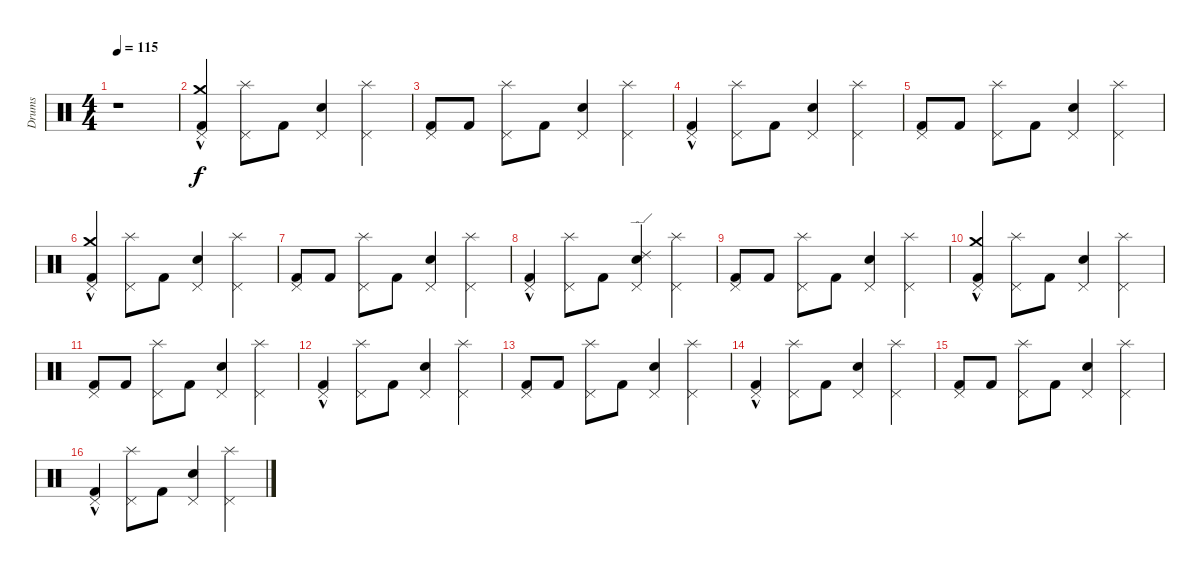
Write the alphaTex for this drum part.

\track ("Drums" "Drums") {instrument percussion}
\staff {score}
\articulation defaults
\ts (4 4)
\tempo 115
\clef neutral
\ks c
r.1{dy f} |
("Pedal Hi-Hat (hit)" "Crash medium (hit)" "Kick (hit) 2"{hac}).4 ("Splash (hit)" "Pedal Hi-Hat (hit)").8 "Kick (hit) 2".8 ("Pedal Hi-Hat (hit)" "Snare (hit) 2").4 ("Splash (hit)" "Pedal Hi-Hat (hit)").4 |
("Pedal Hi-Hat (hit)" "Kick (hit) 2").8 "Kick (hit) 2".8 ("Splash (hit)" "Pedal Hi-Hat (hit)").8 "Kick (hit) 2".8 ("Pedal Hi-Hat (hit)" "Snare (hit) 2").4 ("Splash (hit)" "Pedal Hi-Hat (hit)").4 |
("Pedal Hi-Hat (hit)" "Kick (hit) 2"{hac}).4 ("Splash (hit)" "Pedal Hi-Hat (hit)").8 "Kick (hit) 2".8 ("Pedal Hi-Hat (hit)" "Snare (hit) 2").4 ("Splash (hit)" "Pedal Hi-Hat (hit)").4 |
("Pedal Hi-Hat (hit)" "Kick (hit) 2").8 "Kick (hit) 2".8 ("Splash (hit)" "Pedal Hi-Hat (hit)").8 "Kick (hit) 2".8 ("Pedal Hi-Hat (hit)" "Snare (hit) 2").4 ("Splash (hit)" "Pedal Hi-Hat (hit)").4 |
("Crash medium (hit)" "Pedal Hi-Hat (hit)" "Kick (hit) 2"{hac}).4 ("Splash (hit)" "Pedal Hi-Hat (hit)").8 "Kick (hit) 2".8 ("Snare (hit) 2" "Pedal Hi-Hat (hit)").4 ("Splash (hit)" "Pedal Hi-Hat (hit)").4 |
("Kick (hit) 2" "Pedal Hi-Hat (hit)").8 "Kick (hit) 2".8 ("Splash (hit)" "Pedal Hi-Hat (hit)").8 "Kick (hit) 2".8 ("Snare (hit) 2" "Pedal Hi-Hat (hit)").4 ("Splash (hit)" "Pedal Hi-Hat (hit)").4 |
("Kick (hit) 2"{hac} "Pedal Hi-Hat (hit)").4 ("Splash (hit)" "Pedal Hi-Hat (hit)").8 "Kick (hit) 2".8 ("Ride (edge) 2" "Snare (hit) 2" "Pedal Hi-Hat (hit)").4 ("Pedal Hi-Hat (hit)" "Splash (hit)").4 |
("Kick (hit) 2" "Pedal Hi-Hat (hit)").8 "Kick (hit) 2".8 ("Splash (hit)" "Pedal Hi-Hat (hit)").8 "Kick (hit) 2".8 ("Snare (hit) 2" "Pedal Hi-Hat (hit)").4 ("Splash (hit)" "Pedal Hi-Hat (hit)").4 |
("Pedal Hi-Hat (hit)" "Crash medium (hit)" "Kick (hit) 2"{hac}).4 ("Splash (hit)" "Pedal Hi-Hat (hit)").8 "Kick (hit) 2".8 ("Pedal Hi-Hat (hit)" "Snare (hit) 2").4 ("Splash (hit)" "Pedal Hi-Hat (hit)").4 |
("Pedal Hi-Hat (hit)" "Kick (hit) 2").8 "Kick (hit) 2".8 ("Splash (hit)" "Pedal Hi-Hat (hit)").8 "Kick (hit) 2".8 ("Pedal Hi-Hat (hit)" "Snare (hit) 2").4 ("Splash (hit)" "Pedal Hi-Hat (hit)").4 |
("Pedal Hi-Hat (hit)" "Kick (hit) 2"{hac}).4 ("Splash (hit)" "Pedal Hi-Hat (hit)").8 "Kick (hit) 2".8 ("Pedal Hi-Hat (hit)" "Snare (hit) 2").4 ("Splash (hit)" "Pedal Hi-Hat (hit)").4 |
("Pedal Hi-Hat (hit)" "Kick (hit) 2").8 "Kick (hit) 2".8 ("Splash (hit)" "Pedal Hi-Hat (hit)").8 "Kick (hit) 2".8 ("Pedal Hi-Hat (hit)" "Snare (hit) 2").4 ("Splash (hit)" "Pedal Hi-Hat (hit)").4 |
("Pedal Hi-Hat (hit)" "Kick (hit) 2"{hac}).4 ("Splash (hit)" "Pedal Hi-Hat (hit)").8 "Kick (hit) 2".8 ("Pedal Hi-Hat (hit)" "Snare (hit) 2").4 ("Splash (hit)" "Pedal Hi-Hat (hit)").4 |
("Pedal Hi-Hat (hit)" "Kick (hit) 2").8 "Kick (hit) 2".8 ("Splash (hit)" "Pedal Hi-Hat (hit)").8 "Kick (hit) 2".8 ("Pedal Hi-Hat (hit)" "Snare (hit) 2").4 ("Splash (hit)" "Pedal Hi-Hat (hit)").4 |
("Pedal Hi-Hat (hit)" "Kick (hit) 2"{hac}).4 ("Splash (hit)" "Pedal Hi-Hat (hit)").8 "Kick (hit) 2".8 ("Pedal Hi-Hat (hit)" "Snare (hit) 2").4 ("Splash (hit)" "Pedal Hi-Hat (hit)").4
